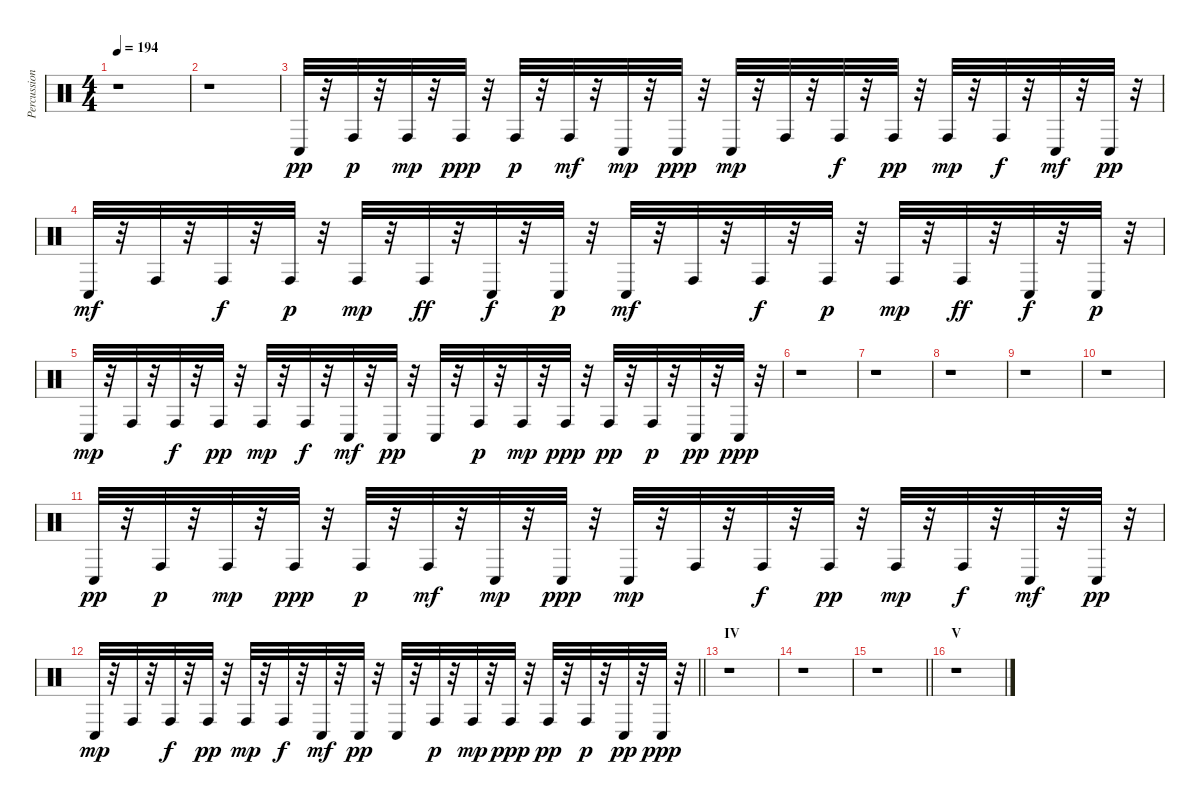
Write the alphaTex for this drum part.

\track ("Percussions" "Percussion") {instrument percussion}
\staff {score}
\articulation defaults
\ts (4 4)
\tempo 194
\clef neutral
\ks c
r.1{dy pp} |
r.1 |
"Conga low (hit)".32 r.32 "Conga high (hit)".32{dy p} r.32 "Conga high (hit)".32{dy mp} r.32 "Conga high (hit)".32{dy ppp} r.32 "Conga high (hit)".32{dy p} r.32 "Conga high (hit)".32{dy mf} r.32 "Conga low (hit)".32{dy mp} r.32 "Conga low (hit)".32{dy ppp} r.32 "Conga low (hit)".32{dy mp} r.32 "Conga high (hit)".32 r.32 "Conga high (hit)".32{dy f} r.32 "Conga high (hit)".32{dy pp} r.32 "Conga high (hit)".32{dy mp} r.32 "Conga high (hit)".32{dy f} r.32 "Conga low (hit)".32{dy mf} r.32 "Conga low (hit)".32{dy pp} r.32 |
"Conga low (hit)".32{dy mf} r.32 "Conga high (hit)".32 r.32 "Conga high (hit)".32{dy f} r.32 "Conga high (hit)".32{dy p} r.32 "Conga high (hit)".32{dy mp} r.32 "Conga high (hit)".32{dy ff} r.32 "Conga low (hit)".32{dy f} r.32 "Conga low (hit)".32{dy p} r.32 "Conga low (hit)".32{dy mf} r.32 "Conga high (hit)".32 r.32 "Conga high (hit)".32{dy f} r.32 "Conga high (hit)".32{dy p} r.32 "Conga high (hit)".32{dy mp} r.32 "Conga high (hit)".32{dy ff} r.32 "Conga low (hit)".32{dy f} r.32 "Conga low (hit)".32{dy p} r.32 |
"Conga low (hit)".32{dy mp} r.32 "Conga high (hit)".32 r.32 "Conga high (hit)".32{dy f} r.32 "Conga high (hit)".32{dy pp} r.32 "Conga high (hit)".32{dy mp} r.32 "Conga high (hit)".32{dy f} r.32 "Conga low (hit)".32{dy mf} r.32 "Conga low (hit)".32{dy pp} r.32 "Conga low (hit)".32 r.32 "Conga high (hit)".32{dy p} r.32 "Conga high (hit)".32{dy mp} r.32 "Conga high (hit)".32{dy ppp} r.32 "Conga high (hit)".32{dy pp} r.32 "Conga high (hit)".32{dy p} r.32 "Conga low (hit)".32{dy pp} r.32 "Conga low (hit)".32{dy ppp} r.32 |
r.1 |
r.1 |
r.1 |
r.1 |
r.1 |
"Conga low (hit)".32{dy pp} r.32 "Conga high (hit)".32{dy p} r.32 "Conga high (hit)".32{dy mp} r.32 "Conga high (hit)".32{dy ppp} r.32 "Conga high (hit)".32{dy p} r.32 "Conga high (hit)".32{dy mf} r.32 "Conga low (hit)".32{dy mp} r.32 "Conga low (hit)".32{dy ppp} r.32 "Conga low (hit)".32{dy mp} r.32 "Conga high (hit)".32 r.32 "Conga high (hit)".32{dy f} r.32 "Conga high (hit)".32{dy pp} r.32 "Conga high (hit)".32{dy mp} r.32 "Conga high (hit)".32{dy f} r.32 "Conga low (hit)".32{dy mf} r.32 "Conga low (hit)".32{dy pp} r.32 |
\barLineRight lightlight "Conga low (hit)".32{dy mp}
r.32 "Conga high (hit)".32 r.32 "Conga high (hit)".32{dy f} r.32 "Conga high (hit)".32{dy pp} r.32 "Conga high (hit)".32{dy mp} r.32 "Conga high (hit)".32{dy f} r.32 "Conga low (hit)".32{dy mf} r.32 "Conga low (hit)".32{dy pp} r.32 "Conga low (hit)".32 r.32 "Conga high (hit)".32{dy p} r.32 "Conga high (hit)".32{dy mp} r.32 "Conga high (hit)".32{dy ppp} r.32 "Conga high (hit)".32{dy pp} r.32 "Conga high (hit)".32{dy p} r.32 "Conga low (hit)".32{dy pp} r.32 "Conga low (hit)".32{dy ppp} r.32 |
\section ("" "IV")
r.1 |
r.1 |
\barLineRight lightlight
r.1 |
\section ("" "V")
r.1
